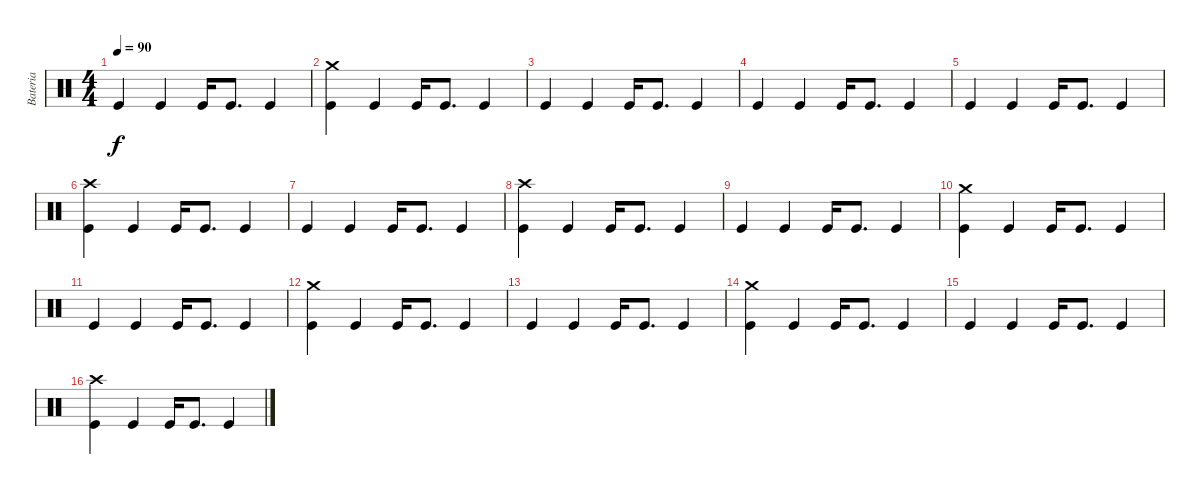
\track ("Bateria" "Bateria") {instrument percussion}
\staff {score}
\articulation defaults
\ts (4 4)
\tempo 90
\clef neutral
\ks c "Kick (hit)".4{dy f} "Kick (hit)".4 "Kick (hit)".16 "Kick (hit)".8{d} "Kick (hit)".4
|
("Kick (hit)" "Crash medium (hit)").4 "Kick (hit)".4 "Kick (hit)".16 "Kick (hit)".8{d} "Kick (hit)".4 |
"Kick (hit)".4 "Kick (hit)".4 "Kick (hit)".16 "Kick (hit)".8{d} "Kick (hit)".4 |
"Kick (hit)".4 "Kick (hit)".4 "Kick (hit)".16 "Kick (hit)".8{d} "Kick (hit)".4 |
"Kick (hit)".4 "Kick (hit)".4 "Kick (hit)".16 "Kick (hit)".8{d} "Kick (hit)".4 |
("Kick (hit)" "Crash high (hit)").4 "Kick (hit)".4 "Kick (hit)".16 "Kick (hit)".8{d} "Kick (hit)".4 |
"Kick (hit)".4 "Kick (hit)".4 "Kick (hit)".16 "Kick (hit)".8{d} "Kick (hit)".4 |
("Kick (hit)" "Crash high (hit)").4 "Kick (hit)".4 "Kick (hit)".16 "Kick (hit)".8{d} "Kick (hit)".4 |
"Kick (hit)".4 "Kick (hit)".4 "Kick (hit)".16 "Kick (hit)".8{d} "Kick (hit)".4 |
("Kick (hit)" "Crash medium (hit)").4 "Kick (hit)".4 "Kick (hit)".16 "Kick (hit)".8{d} "Kick (hit)".4 |
"Kick (hit)".4 "Kick (hit)".4 "Kick (hit)".16 "Kick (hit)".8{d} "Kick (hit)".4 |
("Kick (hit)" "Crash medium (hit)").4 "Kick (hit)".4 "Kick (hit)".16 "Kick (hit)".8{d} "Kick (hit)".4 |
"Kick (hit)".4 "Kick (hit)".4 "Kick (hit)".16 "Kick (hit)".8{d} "Kick (hit)".4 |
("Kick (hit)" "Crash medium (hit)").4 "Kick (hit)".4 "Kick (hit)".16 "Kick (hit)".8{d} "Kick (hit)".4 |
"Kick (hit)".4 "Kick (hit)".4 "Kick (hit)".16 "Kick (hit)".8{d} "Kick (hit)".4 |
("Kick (hit)" "Crash high (hit)").4 "Kick (hit)".4 "Kick (hit)".16 "Kick (hit)".8{d} "Kick (hit)".4
